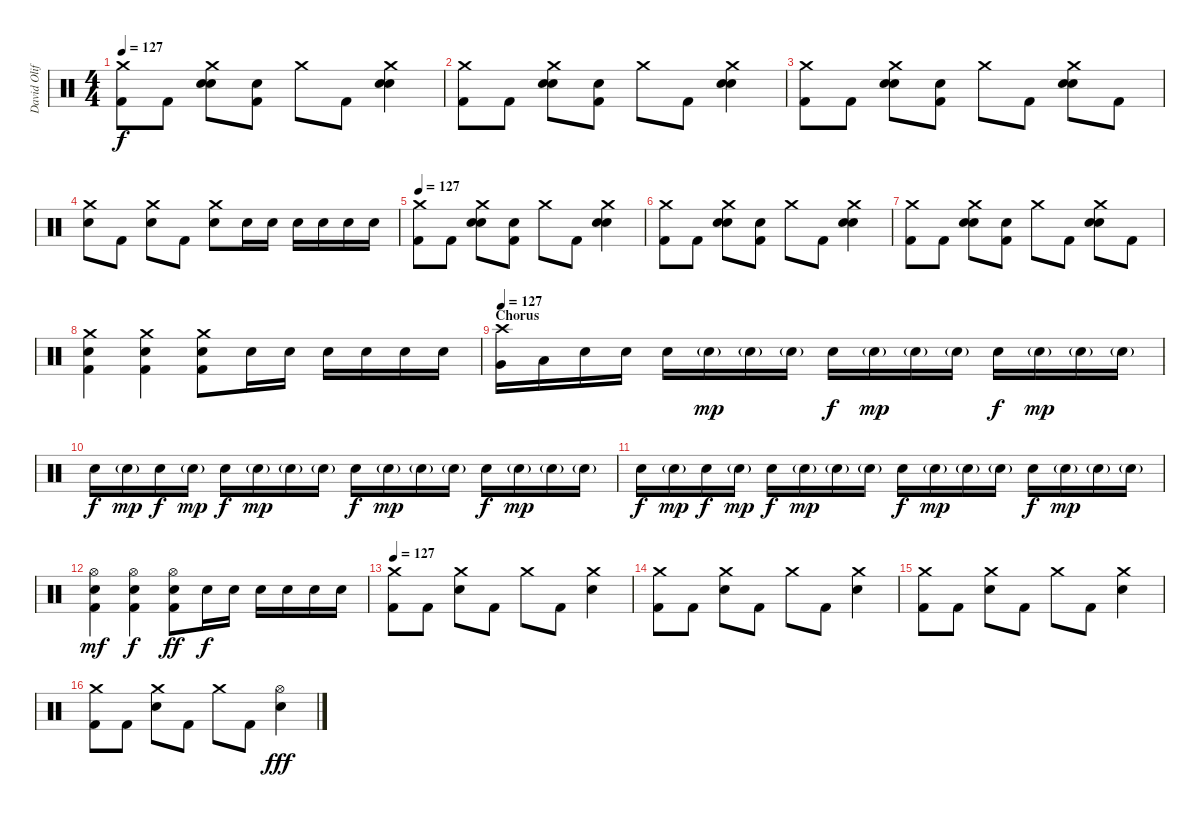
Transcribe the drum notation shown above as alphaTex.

\track ("David Oliffe" "David Olif") {instrument percussion}
\staff {score}
\articulation defaults
\ts (4 4)
\tempo 127
\clef neutral
\ks c
("Crash medium (hit)" "Kick (hit) 2").8{dy f} "Kick (hit) 2".8 ("Crash medium (hit)" "Electric Snare (hit)" "Hand Clap (hit)").8 ("Hand Clap (hit)" "Kick (hit) 2").8 "Crash medium (hit)".8 "Kick (hit) 2".8 ("Crash medium (hit)" "Electric Snare (hit)" "Hand Clap (hit)").4 |
("Crash medium (hit)" "Kick (hit) 2").8 "Kick (hit) 2".8 ("Crash medium (hit)" "Electric Snare (hit)" "Hand Clap (hit)").8 ("Hand Clap (hit)" "Kick (hit) 2").8 "Crash medium (hit)".8 "Kick (hit) 2".8 ("Crash medium (hit)" "Electric Snare (hit)" "Hand Clap (hit)").4 |
("Crash medium (hit)" "Kick (hit) 2").8 "Kick (hit) 2".8 ("Crash medium (hit)" "Electric Snare (hit)" "Hand Clap (hit)").8 ("Hand Clap (hit)" "Kick (hit) 2").8 "Crash medium (hit)".8 "Kick (hit) 2".8 ("Crash medium (hit)" "Electric Snare (hit)" "Hand Clap (hit)").8 "Kick (hit) 2".8 |
("Crash medium (hit)" "Electric Snare (hit)").8 "Kick (hit) 2".8 ("Crash medium (hit)" "Electric Snare (hit)").8 "Kick (hit) 2".8 ("Crash medium (hit)" "Electric Snare (hit)").8 "Electric Snare (hit)".16 "Electric Snare (hit)".16 "Electric Snare (hit)".16 "Electric Snare (hit)".16 "Electric Snare (hit)".16 "Electric Snare (hit)".16 |
\tempo 127
("Crash medium (hit)" "Kick (hit) 2").8 "Kick (hit) 2".8 ("Crash medium (hit)" "Electric Snare (hit)" "Hand Clap (hit)").8 ("Hand Clap (hit)" "Kick (hit) 2").8 "Crash medium (hit)".8 "Kick (hit) 2".8 ("Crash medium (hit)" "Electric Snare (hit)" "Hand Clap (hit)").4 |
("Crash medium (hit)" "Kick (hit) 2").8 "Kick (hit) 2".8 ("Crash medium (hit)" "Electric Snare (hit)" "Hand Clap (hit)").8 ("Hand Clap (hit)" "Kick (hit) 2").8 "Crash medium (hit)".8 "Kick (hit) 2".8 ("Crash medium (hit)" "Electric Snare (hit)" "Hand Clap (hit)").4 |
("Crash medium (hit)" "Kick (hit) 2").8 "Kick (hit) 2".8 ("Crash medium (hit)" "Electric Snare (hit)" "Hand Clap (hit)").8 ("Hand Clap (hit)" "Kick (hit) 2").8 "Crash medium (hit)".8 "Kick (hit) 2".8 ("Crash medium (hit)" "Electric Snare (hit)" "Hand Clap (hit)").8 "Kick (hit) 2".8 |
("Crash medium (hit)" "Electric Snare (hit)" "Kick (hit) 2").4 ("Crash medium (hit)" "Electric Snare (hit)" "Kick (hit) 2").4 ("Crash medium (hit)" "Electric Snare (hit)" "Kick (hit) 2").8 "Electric Snare (hit)".16 "Electric Snare (hit)".16 "Electric Snare (hit)".16 "Electric Snare (hit)".16 "Electric Snare (hit)".16 "Electric Snare (hit)".16 |
\section ("" "Chorus")
\tempo 127
("Crash high (hit)" "Very Low Tom (hit)").16 "Low Tom (hit)".16 "Electric Snare (hit)".16 "Electric Snare (hit)".16 "Electric Snare (hit)".16 "Electric Snare (hit)"{g}.16{dy mp} "Electric Snare (hit)"{g}.16 "Electric Snare (hit)"{g}.16 "Electric Snare (hit)".16{dy f} "Electric Snare (hit)"{g}.16{dy mp} "Electric Snare (hit)"{g}.16 "Electric Snare (hit)"{g}.16 "Electric Snare (hit)".16{dy f} "Electric Snare (hit)"{g}.16{dy mp} "Electric Snare (hit)"{g}.16 "Electric Snare (hit)"{g}.16 |
"Electric Snare (hit)".16{dy f} "Electric Snare (hit)"{g}.16{dy mp} "Electric Snare (hit)".16{dy f} "Electric Snare (hit)"{g}.16{dy mp} "Electric Snare (hit)".16{dy f} "Electric Snare (hit)"{g}.16{dy mp} "Electric Snare (hit)"{g}.16 "Electric Snare (hit)"{g}.16 "Electric Snare (hit)".16{dy f} "Electric Snare (hit)"{g}.16{dy mp} "Electric Snare (hit)"{g}.16 "Electric Snare (hit)"{g}.16 "Electric Snare (hit)".16{dy f} "Electric Snare (hit)"{g}.16{dy mp} "Electric Snare (hit)"{g}.16 "Electric Snare (hit)"{g}.16 |
"Electric Snare (hit)".16{dy f} "Electric Snare (hit)"{g}.16{dy mp} "Electric Snare (hit)".16{dy f} "Electric Snare (hit)"{g}.16{dy mp} "Electric Snare (hit)".16{dy f} "Electric Snare (hit)"{g}.16{dy mp} "Electric Snare (hit)"{g}.16 "Electric Snare (hit)"{g}.16 "Electric Snare (hit)".16{dy f} "Electric Snare (hit)"{g}.16{dy mp} "Electric Snare (hit)"{g}.16 "Electric Snare (hit)"{g}.16 "Electric Snare (hit)".16{dy f} "Electric Snare (hit)"{g}.16{dy mp} "Electric Snare (hit)"{g}.16 "Electric Snare (hit)"{g}.16 |
("Hi-Hat (open)" "Electric Snare (hit)" "Kick (hit) 2").4{dy mf} ("Hi-Hat (open)" "Electric Snare (hit)" "Kick (hit) 2").4{dy f} ("Hi-Hat (open)" "Electric Snare (hit)" "Kick (hit) 2").8{dy ff} "Electric Snare (hit)".16{dy f} "Electric Snare (hit)".16 "Electric Snare (hit)".16 "Electric Snare (hit)".16 "Electric Snare (hit)".16 "Electric Snare (hit)".16 |
\tempo 127
("Crash medium (hit)" "Kick (hit) 2").8 "Kick (hit) 2".8 ("Crash medium (hit)" "Electric Snare (hit)").8 "Kick (hit) 2".8 "Crash medium (hit)".8 "Kick (hit) 2".8 ("Crash medium (hit)" "Electric Snare (hit)").4 |
("Crash medium (hit)" "Kick (hit) 2").8 "Kick (hit) 2".8 ("Crash medium (hit)" "Electric Snare (hit)").8 "Kick (hit) 2".8 "Crash medium (hit)".8 "Kick (hit) 2".8 ("Crash medium (hit)" "Electric Snare (hit)").4 |
("Crash medium (hit)" "Kick (hit) 2").8 "Kick (hit) 2".8 ("Crash medium (hit)" "Electric Snare (hit)").8 "Kick (hit) 2".8 "Crash medium (hit)".8 "Kick (hit) 2".8 ("Crash medium (hit)" "Electric Snare (hit)").4 |
("Crash medium (hit)" "Kick (hit) 2").8 "Kick (hit) 2".8 ("Crash medium (hit)" "Electric Snare (hit)").8 "Kick (hit) 2".8 "Crash medium (hit)".8 "Kick (hit) 2".8 ("Hi-Hat (open)" "Electric Snare (hit)").4{dy fff}
